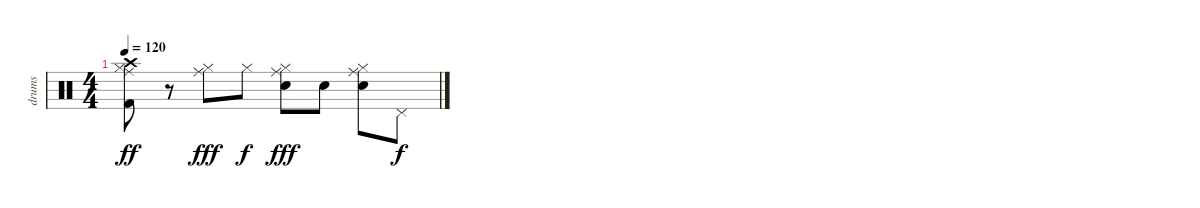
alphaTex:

\track ("drums" "drums") {instrument percussion}
\staff {score}
\articulation defaults
\ts (4 4)
\tempo 120
\clef neutral
\ks c
("Kick (hit) 2" "Hi-Hat (closed)" "Ride (middle)" "Crash high (hit)").8{dy ff volume 4} r.8 ("Hi-Hat (closed)" "Ride (middle)").8{dy fff volume 4} "Hi-Hat (closed)".8{dy f volume 4} ("Snare (hit) 2" "Hi-Hat (closed)" "Ride (middle)").8{dy fff volume 3} "Snare (hit) 2".8{volume 3} ("Snare (hit) 2" "Hi-Hat (closed)" "Ride (middle)").8{volume 2} "Pedal Hi-Hat (hit)".8{dy f volume 2}
